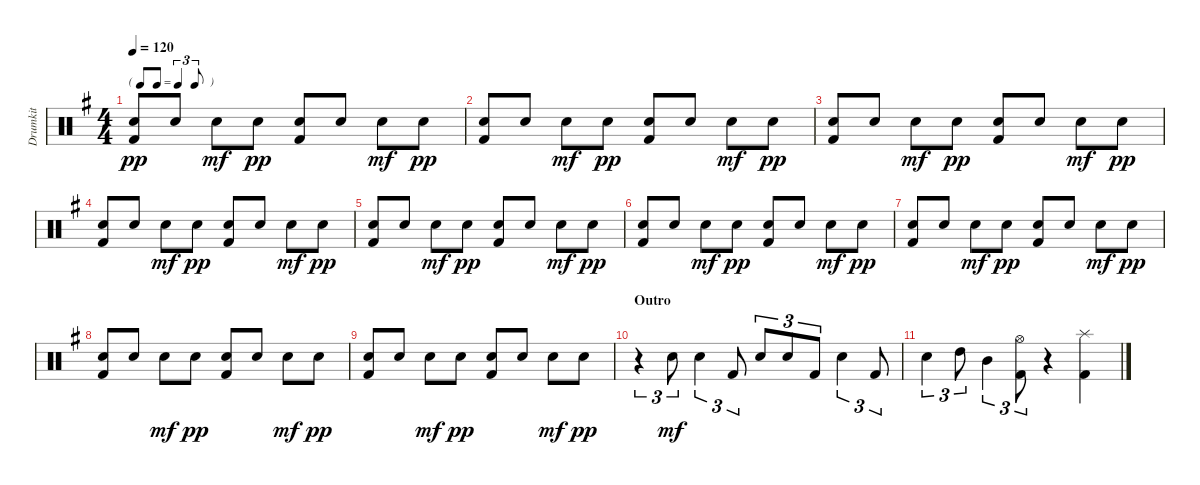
\track ("Drumkit" "Drumkit") {instrument percussion}
\staff {score}
\articulation defaults
\ts (4 4)
\tf triplet8th
\tempo 120
\clef neutral
\ks g
("Snare (hit) 2" "Kick (hit) 2").8{dy pp} "Snare (hit) 2".8 "Snare (hit) 2".8{dy mf} "Snare (hit) 2".8{dy pp} ("Snare (hit) 2" "Kick (hit) 2").8 "Snare (hit) 2".8 "Snare (hit) 2".8{dy mf} "Snare (hit) 2".8{dy pp} |
("Snare (hit) 2" "Kick (hit) 2").8 "Snare (hit) 2".8 "Snare (hit) 2".8{dy mf} "Snare (hit) 2".8{dy pp} ("Snare (hit) 2" "Kick (hit) 2").8 "Snare (hit) 2".8 "Snare (hit) 2".8{dy mf} "Snare (hit) 2".8{dy pp} |
("Snare (hit) 2" "Kick (hit) 2").8 "Snare (hit) 2".8 "Snare (hit) 2".8{dy mf} "Snare (hit) 2".8{dy pp} ("Snare (hit) 2" "Kick (hit) 2").8 "Snare (hit) 2".8 "Snare (hit) 2".8{dy mf} "Snare (hit) 2".8{dy pp} |
("Snare (hit) 2" "Kick (hit) 2").8 "Snare (hit) 2".8 "Snare (hit) 2".8{dy mf} "Snare (hit) 2".8{dy pp} ("Snare (hit) 2" "Kick (hit) 2").8 "Snare (hit) 2".8 "Snare (hit) 2".8{dy mf} "Snare (hit) 2".8{dy pp} |
("Snare (hit) 2" "Kick (hit) 2").8 "Snare (hit) 2".8 "Snare (hit) 2".8{dy mf} "Snare (hit) 2".8{dy pp} ("Snare (hit) 2" "Kick (hit) 2").8 "Snare (hit) 2".8 "Snare (hit) 2".8{dy mf} "Snare (hit) 2".8{dy pp} |
("Snare (hit) 2" "Kick (hit) 2").8 "Snare (hit) 2".8 "Snare (hit) 2".8{dy mf} "Snare (hit) 2".8{dy pp} ("Snare (hit) 2" "Kick (hit) 2").8 "Snare (hit) 2".8 "Snare (hit) 2".8{dy mf} "Snare (hit) 2".8{dy pp} |
("Snare (hit) 2" "Kick (hit) 2").8 "Snare (hit) 2".8 "Snare (hit) 2".8{dy mf} "Snare (hit) 2".8{dy pp} ("Snare (hit) 2" "Kick (hit) 2").8 "Snare (hit) 2".8 "Snare (hit) 2".8{dy mf} "Snare (hit) 2".8{dy pp} |
("Snare (hit) 2" "Kick (hit) 2").8 "Snare (hit) 2".8 "Snare (hit) 2".8{dy mf} "Snare (hit) 2".8{dy pp} ("Snare (hit) 2" "Kick (hit) 2").8 "Snare (hit) 2".8 "Snare (hit) 2".8{dy mf} "Snare (hit) 2".8{dy pp} |
("Snare (hit) 2" "Kick (hit) 2").8 "Snare (hit) 2".8 "Snare (hit) 2".8{dy mf} "Snare (hit) 2".8{dy pp} ("Snare (hit) 2" "Kick (hit) 2").8 "Snare (hit) 2".8 "Snare (hit) 2".8{dy mf} "Snare (hit) 2".8{dy pp} |
\section ("" "Outro")
r.4{tu (3 2)} "Snare (hit) 2".8{tu (3 2) dy mf} "Snare (hit) 2".4{tu (3 2)} "Kick (hit) 2".8{tu (3 2)} "Snare (hit) 2".8{tu (3 2)} "Snare (hit) 2".8{tu (3 2)} "Kick (hit) 2".8{tu (3 2)} "Snare (hit) 2".4{tu (3 2)} "Kick (hit) 2".8{tu (3 2)} |
"Snare (hit) 2".4{tu (3 2)} "High Tom (hit)".8{tu (3 2)} "Mid Tom (hit)".4{tu (3 2)} ("Kick (hit) 2" "Hi-Hat (open)").8{tu (3 2)} r.4 ("Kick (hit) 2" "Splash (hit)").4
